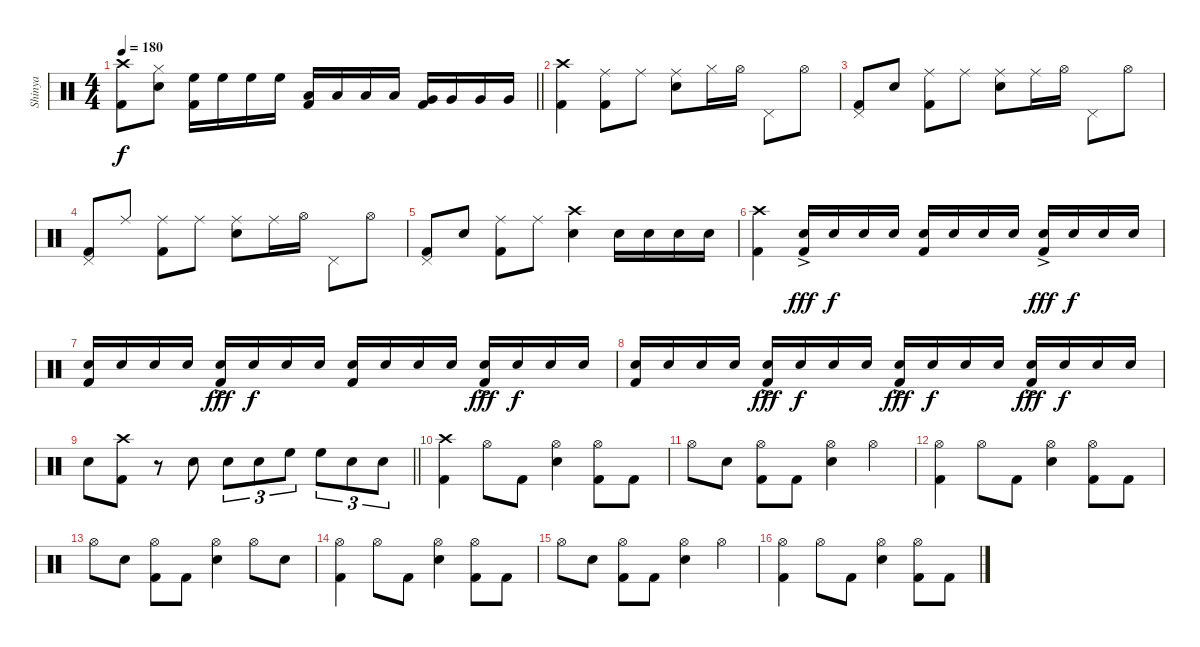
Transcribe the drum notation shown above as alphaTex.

\track ("Shinya" "Shinya") {instrument percussion}
\staff {score}
\articulation defaults
\ts (4 4)
\tempo 180
\clef neutral
\barLineRight lightlight
\ks c
("Crash high (hit)" "Kick (hit) 2").8{dy f} ("Hi-Hat (closed)" "Electric Snare (hit)").8 ("High Floor Tom (hit)" "Kick (hit) 2").16 "High Floor Tom (hit)".16 "High Floor Tom (hit)".16 "High Floor Tom (hit)".16 ("Low Tom (hit)" "Kick (hit) 2").16 "Low Tom (hit)".16 "Low Tom (hit)".16 "Low Tom (hit)".16 ("Very Low Tom (hit)" "Kick (hit) 2").16 "Very Low Tom (hit)".16 "Very Low Tom (hit)".16 "Very Low Tom (hit)".16 |
("Crash high (hit)" "Kick (hit) 2").4 ("Ride (middle)" "Kick (hit) 2").8 "Ride (middle)".8 ("Ride (middle)" "Electric Snare (hit)").8 "Hi-Hat (closed)".16 "Hi-Hat (open)".16 "Pedal Hi-Hat (hit)".8 "Hi-Hat (open)".8 |
("Pedal Hi-Hat (hit)" "Kick (hit) 2").8 "Electric Snare (hit)".8 ("Ride (middle)" "Kick (hit) 2").8 "Ride (middle)".8 ("Ride (middle)" "Electric Snare (hit)").8 "Ride (middle)".16 "Hi-Hat (open)".16 "Pedal Hi-Hat (hit)".8 "Hi-Hat (open)".8 |
("Pedal Hi-Hat (hit)" "Kick (hit) 2").8 "Ride (middle)".8 ("Ride (middle)" "Kick (hit) 2").8 "Ride (middle)".8 ("Ride (middle)" "Electric Snare (hit)").8 "Ride (middle)".16 "Hi-Hat (open)".16 "Pedal Hi-Hat (hit)".8 "Hi-Hat (open)".8 |
("Pedal Hi-Hat (hit)" "Kick (hit) 2").8 "Electric Snare (hit)".8 ("Ride (middle)" "Kick (hit) 2").8 "Ride (middle)".8 ("Crash high (hit)" "Electric Snare (hit)").4 "Electric Snare (hit)".16 "Electric Snare (hit)".16 "Electric Snare (hit)".16 "Electric Snare (hit)".16 |
("Crash high (hit)" "Kick (hit) 2").4 ("Electric Snare (hit)"{ac} "Kick (hit) 2").16{dy fff} "Electric Snare (hit)".16{dy f} "Electric Snare (hit)".16 "Electric Snare (hit)".16 ("Electric Snare (hit)" "Kick (hit) 2").16 "Electric Snare (hit)".16 "Electric Snare (hit)".16 "Electric Snare (hit)".16 ("Electric Snare (hit)"{ac} "Kick (hit) 2").16{dy fff} "Electric Snare (hit)".16{dy f} "Electric Snare (hit)".16 "Electric Snare (hit)".16 |
("Electric Snare (hit)" "Kick (hit) 2").16 "Electric Snare (hit)".16 "Electric Snare (hit)".16 "Electric Snare (hit)".16 ("Electric Snare (hit)"{ac} "Kick (hit) 2").16{dy fff} "Electric Snare (hit)".16{dy f} "Electric Snare (hit)".16 "Electric Snare (hit)".16 ("Electric Snare (hit)" "Kick (hit) 2").16 "Electric Snare (hit)".16 "Electric Snare (hit)".16 "Electric Snare (hit)".16 ("Electric Snare (hit)"{ac} "Kick (hit) 2").16{dy fff} "Electric Snare (hit)".16{dy f} "Electric Snare (hit)".16 "Electric Snare (hit)".16 |
("Electric Snare (hit)" "Kick (hit) 2").16 "Electric Snare (hit)".16 "Electric Snare (hit)".16 "Electric Snare (hit)".16 ("Electric Snare (hit)"{ac} "Kick (hit) 2").16{dy fff} "Electric Snare (hit)".16{dy f} "Electric Snare (hit)".16 "Electric Snare (hit)".16 ("Electric Snare (hit)"{ac} "Kick (hit) 2").16{dy fff} "Electric Snare (hit)".16{dy f} "Electric Snare (hit)".16 "Electric Snare (hit)".16 ("Electric Snare (hit)"{ac} "Kick (hit) 2").16{dy fff} "Electric Snare (hit)".16{dy f} "Electric Snare (hit)".16 "Electric Snare (hit)".16 |
\barLineRight lightlight "Electric Snare (hit)".8
("Crash high (hit)" "Kick (hit) 2").8 r.8 "Electric Snare (hit)".8 "Electric Snare (hit)".8{tu (3 2)} "Electric Snare (hit)".8{tu (3 2)} "High Floor Tom (hit)".8{tu (3 2)} "High Floor Tom (hit)".8{tu (3 2)} "Electric Snare (hit)".8{tu (3 2)} "Electric Snare (hit)".8{tu (3 2)} |
("Crash high (hit)" "Kick (hit) 2").4 "Hi-Hat (open)".8 "Kick (hit) 2".8 ("Hi-Hat (open)" "Electric Snare (hit)").4 ("Hi-Hat (open)" "Kick (hit) 2").8 "Kick (hit) 2".8 |
"Hi-Hat (open)".8 "Electric Snare (hit)".8 ("Hi-Hat (open)" "Kick (hit) 2").8 "Kick (hit) 2".8 ("Hi-Hat (open)" "Electric Snare (hit)").4 "Hi-Hat (open)".4 |
("Hi-Hat (open)" "Kick (hit) 2").4 "Hi-Hat (open)".8 "Kick (hit) 2".8 ("Hi-Hat (open)" "Electric Snare (hit)").4 ("Hi-Hat (open)" "Kick (hit) 2").8 "Kick (hit) 2".8 |
"Hi-Hat (open)".8 "Electric Snare (hit)".8 ("Hi-Hat (open)" "Kick (hit) 2").8 "Kick (hit) 2".8 ("Hi-Hat (open)" "Electric Snare (hit)").4 "Hi-Hat (open)".8 "Electric Snare (hit)".8 |
("Hi-Hat (open)" "Kick (hit) 2").4 "Hi-Hat (open)".8 "Kick (hit) 2".8 ("Hi-Hat (open)" "Electric Snare (hit)").4 ("Hi-Hat (open)" "Kick (hit) 2").8 "Kick (hit) 2".8 |
"Hi-Hat (open)".8 "Electric Snare (hit)".8 ("Hi-Hat (open)" "Kick (hit) 2").8 "Kick (hit) 2".8 ("Hi-Hat (open)" "Electric Snare (hit)").4 "Hi-Hat (open)".4 |
("Hi-Hat (open)" "Kick (hit) 2").4 "Hi-Hat (open)".8 "Kick (hit) 2".8 ("Hi-Hat (open)" "Electric Snare (hit)").4 ("Hi-Hat (open)" "Kick (hit) 2").8 "Kick (hit) 2".8
